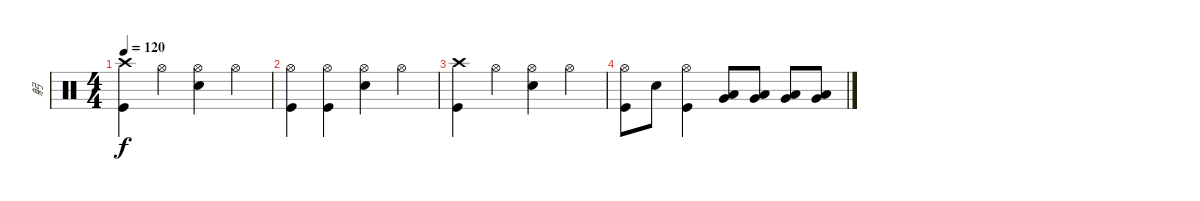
\track ("躬" "躬") {instrument percussion}
\staff {score}
\articulation defaults
\ts (4 4)
\tempo 120
\clef neutral
\ks c
("Crash high (hit)" "Kick (hit)").4{dy f} "Hi-Hat (open)".4 ("Hi-Hat (open)" "Snare (hit) 2").4 "Hi-Hat (open)".4 |
("Hi-Hat (open)" "Kick (hit)").4 ("Hi-Hat (open)" "Kick (hit)").4 ("Hi-Hat (open)" "Snare (hit) 2").4 "Hi-Hat (open)".4 |
("Crash high (hit)" "Kick (hit)").4 "Hi-Hat (open)".4 ("Hi-Hat (open)" "Snare (hit) 2").4 "Hi-Hat (open)".4 |
("Hi-Hat (open)" "Kick (hit)").8 "Snare (hit) 2".8 ("Hi-Hat (open)" "Kick (hit)").4 ("Low Tom (hit)" "Very Low Tom (hit)").8 ("Low Tom (hit)" "Very Low Tom (hit)").8 ("Low Tom (hit)" "Very Low Tom (hit)").8 ("Low Tom (hit)" "Very Low Tom (hit)").8
